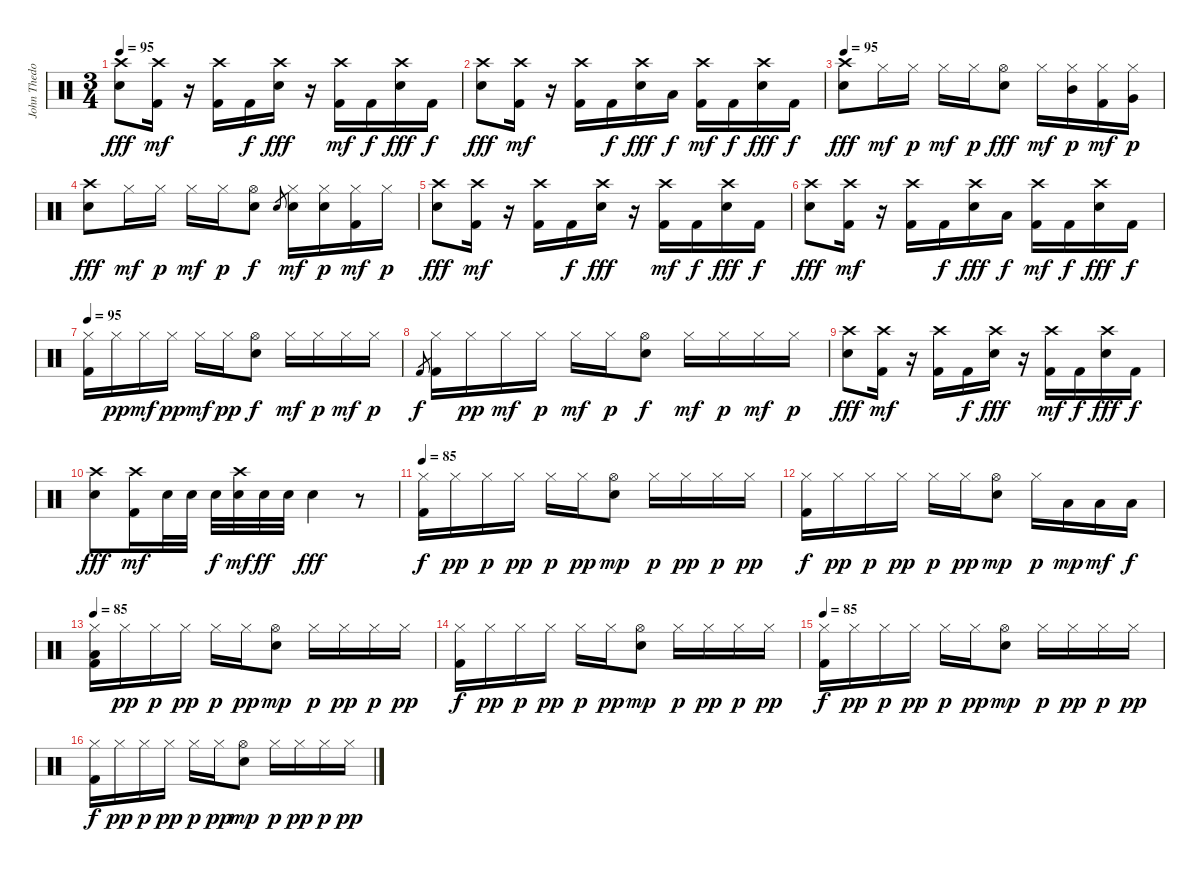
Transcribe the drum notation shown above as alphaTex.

\track ("John Thedore" "John Thedo") {instrument percussion}
\staff {score}
\articulation defaults
\ts (3 4)
\tempo 95
\clef neutral
\ks c
("Crash high (hit)" "Electric Snare (hit)").8{dy fff} ("Crash high (hit)" "Kick (hit) 2").16{dy mf} r.16 ("Crash high (hit)" "Kick (hit) 2").16 "Kick (hit) 2".16{dy f} ("Crash high (hit)" "Electric Snare (hit)").16{dy fff} r.16 ("Crash high (hit)" "Kick (hit) 2").16{dy mf} "Kick (hit) 2".16{dy f} ("Crash high (hit)" "Electric Snare (hit)").16{dy fff} "Kick (hit) 2".16{dy f} |
("Crash high (hit)" "Electric Snare (hit)").8{dy fff} ("Crash high (hit)" "Kick (hit) 2").16{dy mf} r.16 ("Crash high (hit)" "Kick (hit) 2").16 "Kick (hit) 2".16{dy f} ("Crash high (hit)" "Electric Snare (hit)").16{dy fff} "Low Tom (hit)".16{dy f} ("Crash high (hit)" "Kick (hit) 2").16{dy mf} "Kick (hit) 2".16{dy f} ("Crash high (hit)" "Electric Snare (hit)").16{dy fff} "Kick (hit) 2".16{dy f} |
\tempo 95
("Crash high (hit)" "Electric Snare (hit)").8{dy fff} "Hi-Hat (closed)".16{dy mf} "Hi-Hat (closed)".16{dy p} "Hi-Hat (closed)".16{dy mf} "Hi-Hat (closed)".16{dy p} ("Hi-Hat (open)" "Electric Snare (hit)").8{dy fff} "Hi-Hat (closed)".16{dy mf} ("Hi-Hat (closed)" "Mid Tom (hit)").16{dy p} ("Hi-Hat (closed)" "Kick (hit) 2").16{dy mf} ("Hi-Hat (closed)" "Very Low Tom (hit)").16{dy p} |
("Crash high (hit)" "Electric Snare (hit)").8{dy fff} "Hi-Hat (closed)".16{dy mf} "Hi-Hat (closed)".16{dy p} "Hi-Hat (closed)".16{dy mf} "Hi-Hat (closed)".16{dy p} ("Hi-Hat (open)" "Electric Snare (hit)").8{dy f} "Electric Snare (hit)".8{gr} ("Hi-Hat (closed)" "Electric Snare (hit)").16{dy mf} ("Hi-Hat (closed)" "Electric Snare (hit)").16{dy p} ("Hi-Hat (closed)" "Kick (hit) 2").16{dy mf} "Hi-Hat (closed)".16{dy p} |
("Crash high (hit)" "Electric Snare (hit)").8{dy fff} ("Crash high (hit)" "Kick (hit) 2").16{dy mf} r.16 ("Crash high (hit)" "Kick (hit) 2").16 "Kick (hit) 2".16{dy f} ("Crash high (hit)" "Electric Snare (hit)").16{dy fff} r.16 ("Crash high (hit)" "Kick (hit) 2").16{dy mf} "Kick (hit) 2".16{dy f} ("Crash high (hit)" "Electric Snare (hit)").16{dy fff} "Kick (hit) 2".16{dy f} |
("Crash high (hit)" "Electric Snare (hit)").8{dy fff} ("Crash high (hit)" "Kick (hit) 2").16{dy mf} r.16 ("Crash high (hit)" "Kick (hit) 2").16 "Kick (hit) 2".16{dy f} ("Crash high (hit)" "Electric Snare (hit)").16{dy fff} "Low Tom (hit)".16{dy f} ("Crash high (hit)" "Kick (hit) 2").16{dy mf} "Kick (hit) 2".16{dy f} ("Crash high (hit)" "Electric Snare (hit)").16{dy fff} "Kick (hit) 2".16{dy f} |
\tempo 95
("Kick (hit) 2" "Hi-Hat (closed)").16 "Hi-Hat (closed)".16{dy pp} "Hi-Hat (closed)".16{dy mf} "Hi-Hat (closed)".16{dy pp} "Hi-Hat (closed)".16{dy mf} "Hi-Hat (closed)".16{dy pp} ("Hi-Hat (open)" "Electric Snare (hit)").8{dy f} "Hi-Hat (closed)".16{dy mf} "Hi-Hat (closed)".16{dy p} "Hi-Hat (closed)".16{dy mf} "Hi-Hat (closed)".16{dy p} |
"Kick (hit) 2".8{gr dy f} ("Kick (hit) 2" "Hi-Hat (closed)").16 "Hi-Hat (closed)".16{dy pp} "Hi-Hat (closed)".16{dy mf} "Hi-Hat (closed)".16{dy p} "Hi-Hat (closed)".16{dy mf} "Hi-Hat (closed)".16{dy p} ("Hi-Hat (open)" "Electric Snare (hit)").8{dy f} "Hi-Hat (closed)".16{dy mf} "Hi-Hat (closed)".16{dy p} "Hi-Hat (closed)".16{dy mf} "Hi-Hat (closed)".16{dy p} |
("Crash high (hit)" "Electric Snare (hit)").8{dy fff} ("Crash high (hit)" "Kick (hit) 2").16{dy mf} r.16 ("Crash high (hit)" "Kick (hit) 2").16 "Kick (hit) 2".16{dy f} ("Crash high (hit)" "Electric Snare (hit)").16{dy fff} r.16 ("Crash high (hit)" "Kick (hit) 2").16{dy mf} "Kick (hit) 2".16{dy f} ("Crash high (hit)" "Electric Snare (hit)").16{dy fff} "Kick (hit) 2".16{dy f} |
("Crash high (hit)" "Electric Snare (hit)").8{dy fff} ("Crash high (hit)" "Kick (hit) 2").16{dy mf} "Electric Snare (hit)".32 "Electric Snare (hit)".32 "Electric Snare (hit)".32{dy f} ("Crash high (hit)" "Electric Snare (hit)").32{dy mf} "Electric Snare (hit)".32{dy ff} "Electric Snare (hit)".32 "Electric Snare (hit)".4{dy fff} r.8 |
\tempo 85
("Kick (hit) 2" "Hi-Hat (closed)").16{dy f volume 12} "Hi-Hat (closed)".16{dy pp} "Hi-Hat (closed)".16{dy p} "Hi-Hat (closed)".16{dy pp} "Hi-Hat (closed)".16{dy p} "Hi-Hat (closed)".16{dy pp} ("Hi-Hat (open)" "Electric Snare (hit)").8{dy mp} "Hi-Hat (closed)".16{dy p} "Hi-Hat (closed)".16{dy pp} "Hi-Hat (closed)".16{dy p} "Hi-Hat (closed)".16{dy pp} |
("Kick (hit) 2" "Hi-Hat (closed)").16{dy f} "Hi-Hat (closed)".16{dy pp} "Hi-Hat (closed)".16{dy p} "Hi-Hat (closed)".16{dy pp} "Hi-Hat (closed)".16{dy p} "Hi-Hat (closed)".16{dy pp} ("Hi-Hat (open)" "Electric Snare (hit)").8{dy mp} "Hi-Hat (closed)".16{dy p} "Low Tom (hit)".16{dy mp} "Low Tom (hit)".16{dy mf} "Low Tom (hit)".16{dy f} |
\tempo 85
("Low Tom (hit)" "Kick (hit) 2" "Hi-Hat (closed)").16{volume 12} "Hi-Hat (closed)".16{dy pp} "Hi-Hat (closed)".16{dy p} "Hi-Hat (closed)".16{dy pp} "Hi-Hat (closed)".16{dy p} "Hi-Hat (closed)".16{dy pp} ("Hi-Hat (open)" "Electric Snare (hit)").8{dy mp} "Hi-Hat (closed)".16{dy p} "Hi-Hat (closed)".16{dy pp} "Hi-Hat (closed)".16{dy p} "Hi-Hat (closed)".16{dy pp} |
("Kick (hit) 2" "Hi-Hat (closed)").16{dy f} "Hi-Hat (closed)".16{dy pp} "Hi-Hat (closed)".16{dy p} "Hi-Hat (closed)".16{dy pp} "Hi-Hat (closed)".16{dy p} "Hi-Hat (closed)".16{dy pp} ("Hi-Hat (open)" "Electric Snare (hit)").8{dy mp} "Hi-Hat (closed)".16{dy p} "Hi-Hat (closed)".16{dy pp} "Hi-Hat (closed)".16{dy p} "Hi-Hat (closed)".16{dy pp} |
\tempo 85
("Kick (hit) 2" "Hi-Hat (closed)").16{dy f volume 12} "Hi-Hat (closed)".16{dy pp} "Hi-Hat (closed)".16{dy p} "Hi-Hat (closed)".16{dy pp} "Hi-Hat (closed)".16{dy p} "Hi-Hat (closed)".16{dy pp} ("Hi-Hat (open)" "Electric Snare (hit)").8{dy mp} "Hi-Hat (closed)".16{dy p} "Hi-Hat (closed)".16{dy pp} "Hi-Hat (closed)".16{dy p} "Hi-Hat (closed)".16{dy pp} |
("Kick (hit) 2" "Hi-Hat (closed)").16{dy f} "Hi-Hat (closed)".16{dy pp} "Hi-Hat (closed)".16{dy p} "Hi-Hat (closed)".16{dy pp} "Hi-Hat (closed)".16{dy p} "Hi-Hat (closed)".16{dy pp} ("Hi-Hat (open)" "Electric Snare (hit)").8{dy mp} "Hi-Hat (closed)".16{dy p} "Hi-Hat (closed)".16{dy pp} "Hi-Hat (closed)".16{dy p} "Hi-Hat (closed)".16{dy pp}
